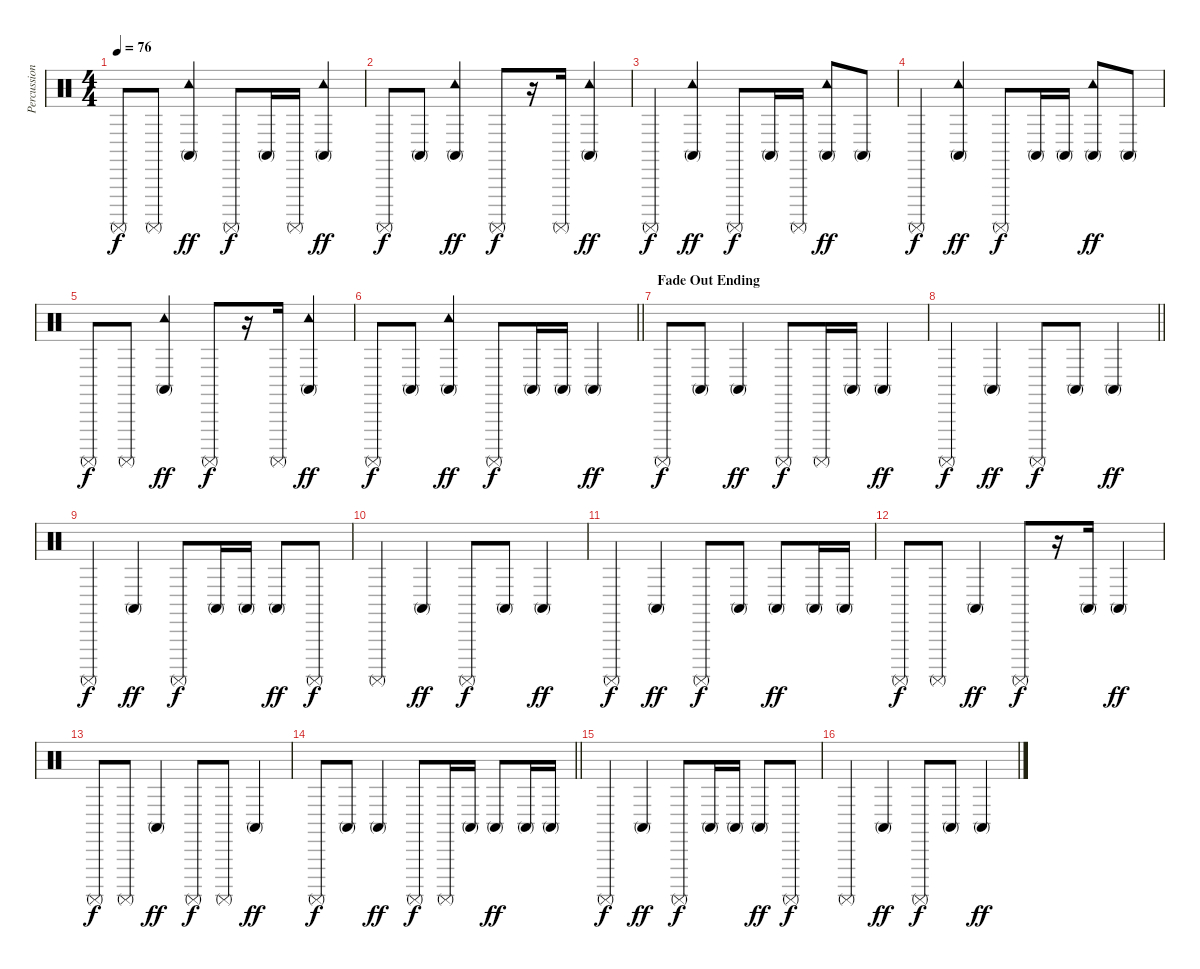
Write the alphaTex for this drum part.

\track ("Percussions" "Percussion") {instrument percussion}
\staff {score}
\articulation defaults
\ts (4 4)
\tempo 76
\clef neutral
\ks c "Surdo (mute)".8{dy f} "Surdo (mute)".8
("Tambourine (hit)" "Conga high (mute)").4{dy ff} "Surdo (mute)".8{dy f} "Conga high (mute)".16 "Surdo (mute)".16 ("Tambourine (hit)" "Conga high (mute)").4{dy ff} |
"Surdo (mute)".8{dy f} "Conga high (mute)".8 ("Tambourine (hit)" "Conga high (mute)").4{dy ff} "Surdo (mute)".8{dy f} r.16 "Surdo (mute)".16 ("Tambourine (hit)" "Conga high (mute)").4{dy ff} |
"Surdo (mute)".4{dy f} ("Tambourine (hit)" "Conga high (mute)").4{dy ff} "Surdo (mute)".8{dy f} "Conga high (mute)".16 "Surdo (mute)".16 ("Tambourine (hit)" "Conga high (mute)").8{dy ff} "Conga high (mute)".8 |
"Surdo (mute)".4{dy f} ("Tambourine (hit)" "Conga high (mute)").4{dy ff} "Surdo (mute)".8{dy f} "Conga high (mute)".16 "Conga high (mute)".16 ("Tambourine (hit)" "Conga high (mute)").8{dy ff} "Conga high (mute)".8 |
"Surdo (mute)".8{dy f} "Surdo (mute)".8 ("Tambourine (hit)" "Conga high (mute)").4{dy ff} "Surdo (mute)".8{dy f} r.16 "Surdo (mute)".16 ("Tambourine (hit)" "Conga high (mute)").4{dy ff} |
\barLineRight lightlight "Surdo (mute)".8{dy f} "Conga high (mute)".8
("Tambourine (hit)" "Conga high (mute)").4{dy ff} "Surdo (mute)".8{dy f} "Conga high (mute)".16 "Conga high (mute)".16 "Conga high (mute)".4{dy ff} |
\section ("" "Fade Out Ending")
"Surdo (mute)".8{dy f volume 10} "Conga high (mute)".8 "Conga high (mute)".4{dy ff} "Surdo (mute)".8{dy f} "Surdo (mute)".16 "Conga high (mute)".16 "Conga high (mute)".4{dy ff} |
\barLineRight lightlight "Surdo (mute)".4{dy f} "Conga high (mute)".4{dy ff} "Surdo (mute)".8{dy f} "Conga high (mute)".8 "Conga high (mute)".4{dy ff}
|
"Surdo (mute)".4{dy f} "Conga high (mute)".4{dy ff} "Surdo (mute)".8{dy f} "Conga high (mute)".16 "Conga high (mute)".16 "Conga high (mute)".8{dy ff} "Surdo (mute)".8{dy f} |
"Surdo (mute)".4 "Conga high (mute)".4{dy ff} "Surdo (mute)".8{dy f} "Conga high (mute)".8 "Conga high (mute)".4{dy ff} |
"Surdo (mute)".4{dy f volume 5} "Conga high (mute)".4{dy ff} "Surdo (mute)".8{dy f} "Conga high (mute)".8 "Conga high (mute)".8{dy ff} "Conga high (mute)".16 "Conga high (mute)".16 |
"Surdo (mute)".8{dy f} "Surdo (mute)".8 "Conga high (mute)".4{dy ff} "Surdo (mute)".8{dy f} r.16 "Conga high (mute)".16 "Conga high (mute)".4{dy ff} |
"Surdo (mute)".8{dy f} "Surdo (mute)".8 "Conga high (mute)".4{dy ff} "Surdo (mute)".8{dy f} "Surdo (mute)".8 "Conga high (mute)".4{dy ff} |
\barLineRight lightlight "Surdo (mute)".8{dy f} "Conga high (mute)".8 "Conga high (mute)".4{dy ff} "Surdo (mute)".8{dy f} "Surdo (mute)".16 "Conga high (mute)".16 "Conga high (mute)".8{dy ff} "Conga high (mute)".16 "Conga high (mute)".16
|
"Surdo (mute)".4{dy f volume 0} "Conga high (mute)".4{dy ff} "Surdo (mute)".8{dy f} "Conga high (mute)".16 "Conga high (mute)".16 "Conga high (mute)".8{dy ff} "Surdo (mute)".8{dy f} |
"Surdo (mute)".4 "Conga high (mute)".4{dy ff} "Surdo (mute)".8{dy f} "Conga high (mute)".8 "Conga high (mute)".4{dy ff}
